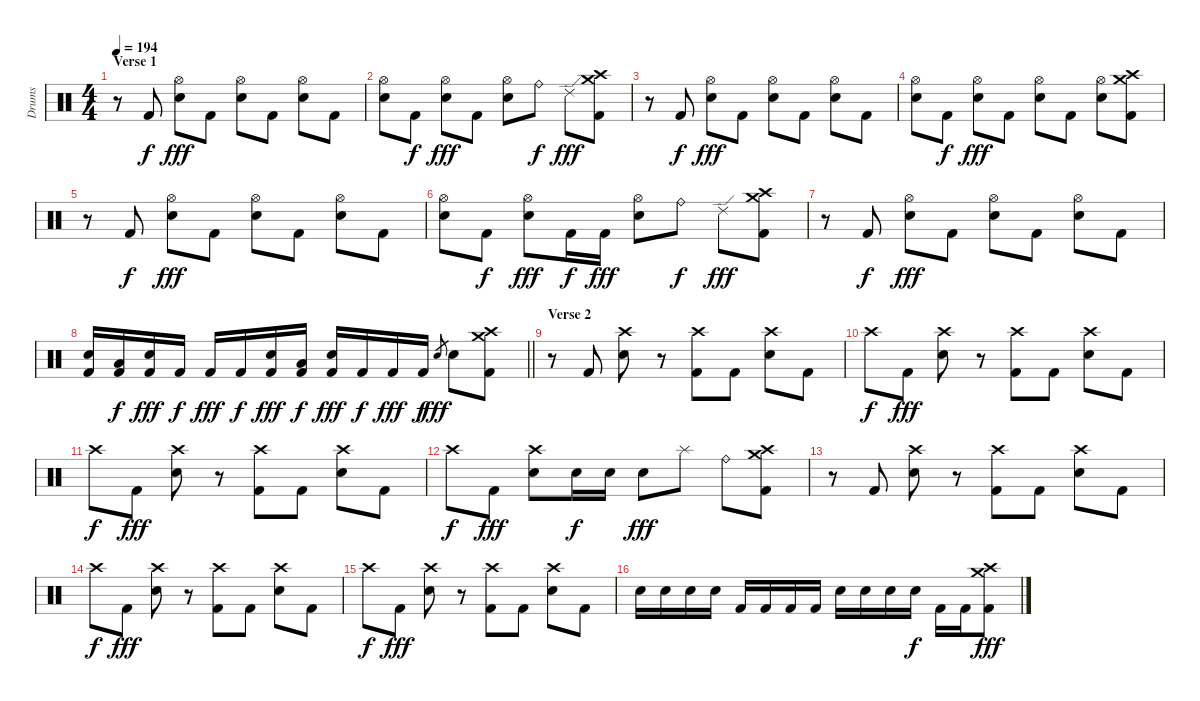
\track ("Drums" "Drums") {instrument percussion}
\staff {score}
\articulation defaults
\ts (4 4)
\section ("" "Verse 1")
\tempo 194
\clef neutral
\ks c
r.8{dy f} "Kick (hit) 2".8 ("Hi-Hat (open)" "Electric Snare (hit)").8{dy fff} "Kick (hit) 2".8 ("Hi-Hat (open)" "Electric Snare (hit)").8 "Kick (hit) 2".8 ("Hi-Hat (open)" "Electric Snare (hit)").8 "Kick (hit) 2".8 |
("Hi-Hat (open)" "Electric Snare (hit)").8 "Kick (hit) 2".8{dy f} ("Hi-Hat (open)" "Electric Snare (hit)").8{dy fff} "Kick (hit) 2".8 ("Hi-Hat (open)" "Electric Snare (hit)").8 "Ride (bell)".8{dy f} "Ride (edge) 2".8{dy fff} ("Crash medium (hit)" "Crash high (hit)" "Kick (hit) 2").8 |
r.8 "Kick (hit) 2".8{dy f} ("Hi-Hat (open)" "Electric Snare (hit)").8{dy fff} "Kick (hit) 2".8 ("Hi-Hat (open)" "Electric Snare (hit)").8 "Kick (hit) 2".8 ("Hi-Hat (open)" "Electric Snare (hit)").8 "Kick (hit) 2".8 |
("Hi-Hat (open)" "Electric Snare (hit)").8 "Kick (hit) 2".8{dy f} ("Hi-Hat (open)" "Electric Snare (hit)").8{dy fff} "Kick (hit) 2".8 ("Hi-Hat (open)" "Electric Snare (hit)").8 "Kick (hit) 2".8 ("Hi-Hat (open)" "Electric Snare (hit)").8 ("Crash medium (hit)" "Crash high (hit)" "Kick (hit) 2").8 |
r.8 "Kick (hit) 2".8{dy f} ("Hi-Hat (open)" "Electric Snare (hit)").8{dy fff} "Kick (hit) 2".8 ("Hi-Hat (open)" "Electric Snare (hit)").8 "Kick (hit) 2".8 ("Hi-Hat (open)" "Electric Snare (hit)").8 "Kick (hit) 2".8 |
("Hi-Hat (open)" "Electric Snare (hit)").8 "Kick (hit) 2".8{dy f} ("Hi-Hat (open)" "Electric Snare (hit)").8{dy fff} "Kick (hit) 2".16{dy f} "Kick (hit) 2".16{dy fff} ("Hi-Hat (open)" "Electric Snare (hit)").8 "Ride (bell)".8{dy f} "Ride (edge) 2".8{dy fff} ("Crash medium (hit)" "Crash high (hit)" "Kick (hit) 2").8 |
r.8 "Kick (hit) 2".8{dy f} ("Hi-Hat (open)" "Electric Snare (hit)").8{dy fff} "Kick (hit) 2".8 ("Hi-Hat (open)" "Electric Snare (hit)").8 "Kick (hit) 2".8 ("Hi-Hat (open)" "Electric Snare (hit)").8 "Kick (hit) 2".8 |
\barLineRight lightlight
("Electric Snare (hit)" "Kick (hit) 2").16 ("Low Tom (hit)" "Kick (hit) 2").16{dy f} ("Electric Snare (hit)" "Kick (hit) 2").16{dy fff} "Kick (hit) 2".16{dy f} "Kick (hit) 2".16{dy fff} "Kick (hit) 2".16{dy f} ("Electric Snare (hit)" "Kick (hit) 2").16{dy fff} ("Low Tom (hit)" "Kick (hit) 2").16{dy f} ("Electric Snare (hit)" "Kick (hit) 2").16{dy fff} "Kick (hit) 2".16{dy f} "Kick (hit) 2".16{dy fff} "Kick (hit) 2".16{dy f} "Electric Snare (hit)".8{gr dy fff} "Electric Snare (hit)".8 ("Crash medium (hit)" "Crash high (hit)" "Kick (hit) 2").8 |
\section ("" "Verse 2")
r.8 "Kick (hit) 2".8 ("Crash high (hit)" "Electric Snare (hit)").8 r.8 ("Crash high (hit)" "Kick (hit) 2").8 "Kick (hit) 2".8 ("Crash high (hit)" "Electric Snare (hit)").8 "Kick (hit) 2".8 |
"Crash high (hit)".8{dy f} "Kick (hit) 2".8{dy fff} ("Crash high (hit)" "Electric Snare (hit)").8 r.8 ("Crash high (hit)" "Kick (hit) 2").8 "Kick (hit) 2".8 ("Crash high (hit)" "Electric Snare (hit)").8 "Kick (hit) 2".8 |
"Crash high (hit)".8{dy f} "Kick (hit) 2".8{dy fff} ("Crash high (hit)" "Electric Snare (hit)").8 r.8 ("Crash high (hit)" "Kick (hit) 2").8 "Kick (hit) 2".8 ("Crash high (hit)" "Electric Snare (hit)").8 "Kick (hit) 2".8 |
"Crash high (hit)".8{dy f} "Kick (hit) 2".8{dy fff} ("Crash high (hit)" "Electric Snare (hit)").8 "Electric Snare (hit)".16{dy f} "Electric Snare (hit)".16 "Electric Snare (hit)".8{dy fff} "Splash (hit)".8 "Ride (bell)".8 ("Crash medium (hit)" "Crash high (hit)" "Kick (hit) 2").8 |
r.8 "Kick (hit) 2".8 ("Crash high (hit)" "Electric Snare (hit)").8 r.8 ("Crash high (hit)" "Kick (hit) 2").8 "Kick (hit) 2".8 ("Crash high (hit)" "Electric Snare (hit)").8 "Kick (hit) 2".8 |
"Crash high (hit)".8{dy f} "Kick (hit) 2".8{dy fff} ("Crash high (hit)" "Electric Snare (hit)").8 r.8 ("Crash high (hit)" "Kick (hit) 2").8 "Kick (hit) 2".8 ("Crash high (hit)" "Electric Snare (hit)").8 "Kick (hit) 2".8 |
"Crash high (hit)".8{dy f} "Kick (hit) 2".8{dy fff} ("Crash high (hit)" "Electric Snare (hit)").8 r.8 ("Crash high (hit)" "Kick (hit) 2").8 "Kick (hit) 2".8 ("Crash high (hit)" "Electric Snare (hit)").8 "Kick (hit) 2".8 |
"Electric Snare (hit)".16 "Electric Snare (hit)".16 "Electric Snare (hit)".16 "Electric Snare (hit)".16 "Kick (hit) 2".16 "Kick (hit) 2".16 "Kick (hit) 2".16 "Kick (hit) 2".16 "Electric Snare (hit)".16 "Electric Snare (hit)".16 "Electric Snare (hit)".16 "Electric Snare (hit)".16{dy f} "Kick (hit) 2".16 "Kick (hit) 2".16 ("Crash medium (hit)" "Crash high (hit)" "Kick (hit) 2").8{dy fff}
